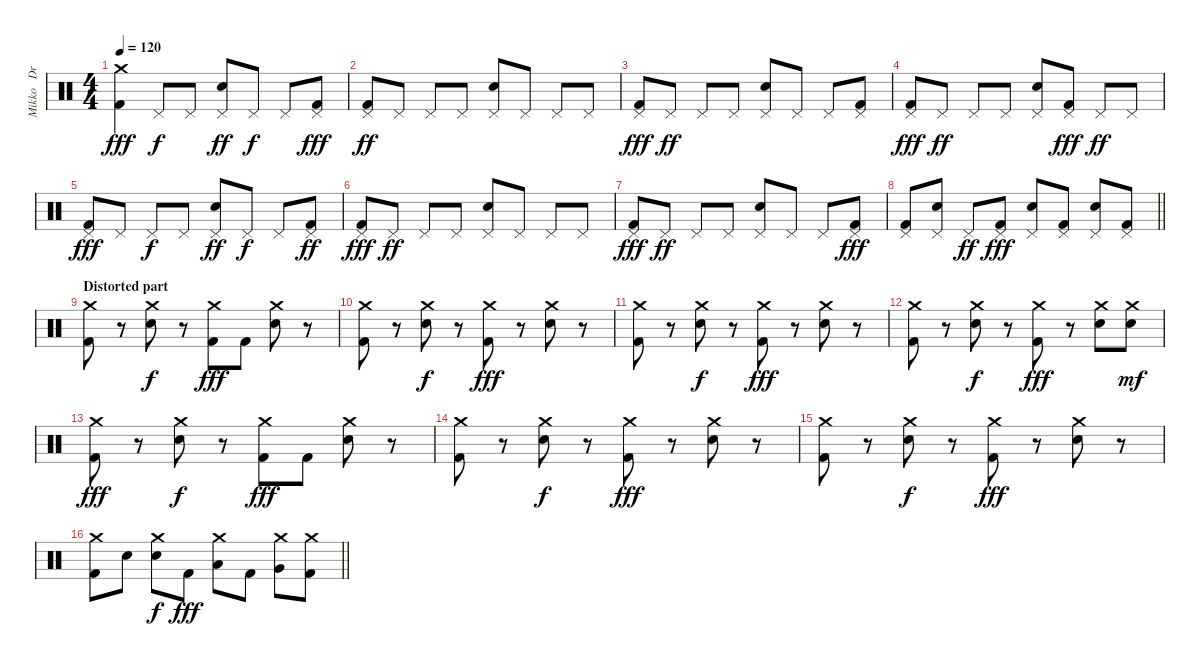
\track ("Mikko   Drums" "Mikko   Dr") {instrument percussion}
\staff {score}
\articulation defaults
\ts (4 4)
\tempo 120
\clef neutral
\ks c
("Crash medium (hit)" "Kick (hit) 2").4{dy fff} "Pedal Hi-Hat (hit)".8{dy f} "Pedal Hi-Hat (hit)".8 ("Pedal Hi-Hat (hit)" "Snare (hit) 2").8{dy ff} "Pedal Hi-Hat (hit)".8{dy f} "Pedal Hi-Hat (hit)".8 ("Pedal Hi-Hat (hit)" "Kick (hit) 2").8{dy fff} |
("Pedal Hi-Hat (hit)" "Kick (hit) 2").8{dy ff} "Pedal Hi-Hat (hit)".8 "Pedal Hi-Hat (hit)".8 "Pedal Hi-Hat (hit)".8 ("Pedal Hi-Hat (hit)" "Snare (hit) 2").8 "Pedal Hi-Hat (hit)".8 "Pedal Hi-Hat (hit)".8 "Pedal Hi-Hat (hit)".8 |
("Pedal Hi-Hat (hit)" "Kick (hit) 2").8{dy fff} "Pedal Hi-Hat (hit)".8{dy ff} "Pedal Hi-Hat (hit)".8 "Pedal Hi-Hat (hit)".8 ("Pedal Hi-Hat (hit)" "Snare (hit) 2").8 "Pedal Hi-Hat (hit)".8 "Pedal Hi-Hat (hit)".8 ("Pedal Hi-Hat (hit)" "Kick (hit) 2").8 |
("Pedal Hi-Hat (hit)" "Kick (hit) 2").8{dy fff} "Pedal Hi-Hat (hit)".8{dy ff} "Pedal Hi-Hat (hit)".8 "Pedal Hi-Hat (hit)".8 ("Pedal Hi-Hat (hit)" "Snare (hit) 2").8 ("Pedal Hi-Hat (hit)" "Kick (hit) 2").8{dy fff} "Pedal Hi-Hat (hit)".8{dy ff} "Pedal Hi-Hat (hit)".8 |
("Pedal Hi-Hat (hit)" "Kick (hit) 2").8{dy fff} "Pedal Hi-Hat (hit)".8 "Pedal Hi-Hat (hit)".8{dy f} "Pedal Hi-Hat (hit)".8 ("Pedal Hi-Hat (hit)" "Snare (hit) 2").8{dy ff} "Pedal Hi-Hat (hit)".8{dy f} "Pedal Hi-Hat (hit)".8 ("Pedal Hi-Hat (hit)" "Kick (hit) 2").8{dy ff} |
("Pedal Hi-Hat (hit)" "Kick (hit) 2").8{dy fff} "Pedal Hi-Hat (hit)".8{dy ff} "Pedal Hi-Hat (hit)".8 "Pedal Hi-Hat (hit)".8 ("Pedal Hi-Hat (hit)" "Snare (hit) 2").8 "Pedal Hi-Hat (hit)".8 "Pedal Hi-Hat (hit)".8 "Pedal Hi-Hat (hit)".8 |
("Pedal Hi-Hat (hit)" "Kick (hit) 2").8{dy fff} "Pedal Hi-Hat (hit)".8{dy ff} "Pedal Hi-Hat (hit)".8 "Pedal Hi-Hat (hit)".8 ("Pedal Hi-Hat (hit)" "Snare (hit) 2").8 "Pedal Hi-Hat (hit)".8 "Pedal Hi-Hat (hit)".8 ("Pedal Hi-Hat (hit)" "Kick (hit) 2").8{dy fff} |
\barLineRight lightlight
("Pedal Hi-Hat (hit)" "Kick (hit) 2").8 ("Pedal Hi-Hat (hit)" "Snare (hit) 2").8 "Pedal Hi-Hat (hit)".8{dy ff} ("Pedal Hi-Hat (hit)" "Kick (hit) 2").8{dy fff} ("Pedal Hi-Hat (hit)" "Snare (hit) 2").8 ("Pedal Hi-Hat (hit)" "Kick (hit) 2").8 ("Pedal Hi-Hat (hit)" "Snare (hit) 2").8 ("Pedal Hi-Hat (hit)" "Kick (hit) 2").8 |
\section ("" "Distorted part")
("Crash medium (hit)" "Kick (hit) 2").8 r.8 ("Crash medium (hit)" "Snare (hit) 2").8{dy f} r.8 ("Crash medium (hit)" "Kick (hit) 2").8{dy fff} "Kick (hit) 2".8 ("Crash medium (hit)" "Snare (hit) 2").8 r.8 |
("Crash medium (hit)" "Kick (hit) 2").8 r.8 ("Crash medium (hit)" "Snare (hit) 2").8{dy f} r.8 ("Crash medium (hit)" "Kick (hit) 2").8{dy fff} r.8 ("Crash medium (hit)" "Snare (hit) 2").8 r.8 |
("Crash medium (hit)" "Kick (hit) 2").8 r.8 ("Crash medium (hit)" "Snare (hit) 2").8{dy f} r.8 ("Crash medium (hit)" "Kick (hit) 2").8{dy fff} r.8 ("Crash medium (hit)" "Snare (hit) 2").8 r.8 |
("Crash medium (hit)" "Kick (hit) 2").8 r.8 ("Crash medium (hit)" "Snare (hit) 2").8{dy f} r.8 ("Crash medium (hit)" "Kick (hit) 2").8{dy fff} r.8 ("Crash medium (hit)" "Snare (hit) 2").8 ("Crash medium (hit)" "Snare (hit) 2").8{dy mf} |
("Crash medium (hit)" "Kick (hit) 2").8{dy fff} r.8 ("Crash medium (hit)" "Snare (hit) 2").8{dy f} r.8 ("Crash medium (hit)" "Kick (hit) 2").8{dy fff} "Kick (hit) 2".8 ("Crash medium (hit)" "Snare (hit) 2").8 r.8 |
("Crash medium (hit)" "Kick (hit) 2").8 r.8 ("Crash medium (hit)" "Snare (hit) 2").8{dy f} r.8 ("Crash medium (hit)" "Kick (hit) 2").8{dy fff} r.8 ("Crash medium (hit)" "Snare (hit) 2").8 r.8 |
("Crash medium (hit)" "Kick (hit) 2").8 r.8 ("Crash medium (hit)" "Snare (hit) 2").8{dy f} r.8 ("Crash medium (hit)" "Kick (hit) 2").8{dy fff} r.8 ("Crash medium (hit)" "Snare (hit) 2").8 r.8 |
\barLineRight lightlight
("Crash medium (hit)" "Kick (hit) 2").8 "Snare (hit) 2".8 ("Crash medium (hit)" "Snare (hit) 2").8{dy f} "Kick (hit) 2".8{dy fff} ("Crash medium (hit)" "Low Tom (hit)").8 "Kick (hit) 2".8 ("Crash medium (hit)" "Very Low Tom (hit)").8 ("Crash medium (hit)" "Kick (hit) 2").8
